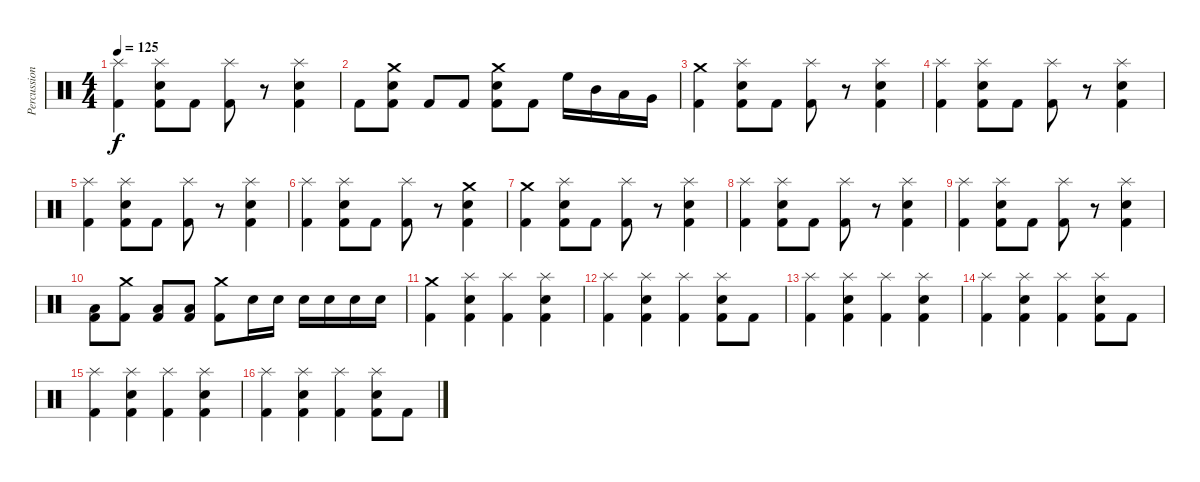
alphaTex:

\track ("Percussion" "Percussion") {instrument percussion}
\staff {score}
\articulation defaults
\ts (4 4)
\tempo 125
\clef neutral
\ks c
("Splash (hit)" "Kick (hit) 2").4{dy f} ("Splash (hit)" "Snare (hit) 2" "Kick (hit) 2").8 "Kick (hit) 2".8 ("Splash (hit)" "Kick (hit) 2").8 r.8 ("Splash (hit)" "Snare (hit) 2" "Kick (hit) 2").4 |
"Kick (hit) 2".8 ("Crash medium (hit)" "Snare (hit) 2" "Kick (hit) 2").8 "Kick (hit) 2".8 "Kick (hit) 2".8 ("Crash medium (hit)" "Snare (hit) 2" "Kick (hit) 2").8 "Kick (hit) 2".8 "High Floor Tom (hit)".16 "Mid Tom (hit)".16 "Low Tom (hit)".16 "Very Low Tom (hit)".16 |
("Crash medium (hit)" "Kick (hit) 2").4 ("Splash (hit)" "Snare (hit) 2" "Kick (hit) 2").8 "Kick (hit) 2".8 ("Splash (hit)" "Kick (hit) 2").8 r.8 ("Splash (hit)" "Snare (hit) 2" "Kick (hit) 2").4 |
("Splash (hit)" "Kick (hit) 2").4 ("Splash (hit)" "Snare (hit) 2" "Kick (hit) 2").8 "Kick (hit) 2".8 ("Splash (hit)" "Kick (hit) 2").8 r.8 ("Splash (hit)" "Snare (hit) 2" "Kick (hit) 2").4 |
("Splash (hit)" "Kick (hit) 2").4 ("Splash (hit)" "Snare (hit) 2" "Kick (hit) 2").8 "Kick (hit) 2".8 ("Splash (hit)" "Kick (hit) 2").8 r.8 ("Splash (hit)" "Snare (hit) 2" "Kick (hit) 2").4 |
("Splash (hit)" "Kick (hit) 2").4 ("Splash (hit)" "Snare (hit) 2" "Kick (hit) 2").8 "Kick (hit) 2".8 ("Splash (hit)" "Kick (hit) 2").8 r.8 ("Crash medium (hit)" "Snare (hit) 2" "Kick (hit) 2").4 |
("Crash medium (hit)" "Kick (hit) 2").4 ("Splash (hit)" "Snare (hit) 2" "Kick (hit) 2").8 "Kick (hit) 2".8 ("Splash (hit)" "Kick (hit) 2").8 r.8 ("Splash (hit)" "Snare (hit) 2" "Kick (hit) 2").4 |
("Splash (hit)" "Kick (hit) 2").4 ("Splash (hit)" "Snare (hit) 2" "Kick (hit) 2").8 "Kick (hit) 2".8 ("Splash (hit)" "Kick (hit) 2").8 r.8 ("Splash (hit)" "Snare (hit) 2" "Kick (hit) 2").4 |
("Splash (hit)" "Kick (hit) 2").4 ("Splash (hit)" "Snare (hit) 2" "Kick (hit) 2").8 "Kick (hit) 2".8 ("Splash (hit)" "Kick (hit) 2").8 r.8 ("Splash (hit)" "Snare (hit) 2" "Kick (hit) 2").4 |
("Low Floor Tom (hit)" "Kick (hit) 2").8 ("Crash medium (hit)" "Kick (hit) 2").8 ("Low Floor Tom (hit)" "Kick (hit) 2").8 ("Low Floor Tom (hit)" "Kick (hit) 2").8 ("Crash medium (hit)" "Kick (hit) 2").8 "Snare (hit) 2".16 "Snare (hit) 2".16 "Snare (hit) 2".16 "Snare (hit) 2".16 "Snare (hit) 2".16 "Snare (hit) 2".16 |
("Crash medium (hit)" "Kick (hit) 2").4 ("Splash (hit)" "Snare (hit) 2" "Kick (hit) 2").4 ("Splash (hit)" "Kick (hit) 2").4 ("Splash (hit)" "Snare (hit) 2" "Kick (hit) 2").4 |
("Splash (hit)" "Kick (hit) 2").4 ("Splash (hit)" "Snare (hit) 2" "Kick (hit) 2").4 ("Splash (hit)" "Kick (hit) 2").4 ("Splash (hit)" "Snare (hit) 2" "Kick (hit) 2").8 "Kick (hit) 2".8 |
("Splash (hit)" "Kick (hit) 2").4 ("Splash (hit)" "Snare (hit) 2" "Kick (hit) 2").4 ("Splash (hit)" "Kick (hit) 2").4 ("Splash (hit)" "Snare (hit) 2" "Kick (hit) 2").4 |
("Splash (hit)" "Kick (hit) 2").4 ("Splash (hit)" "Snare (hit) 2" "Kick (hit) 2").4 ("Splash (hit)" "Kick (hit) 2").4 ("Splash (hit)" "Snare (hit) 2" "Kick (hit) 2").8 "Kick (hit) 2".8 |
("Splash (hit)" "Kick (hit) 2").4 ("Splash (hit)" "Snare (hit) 2" "Kick (hit) 2").4 ("Splash (hit)" "Kick (hit) 2").4 ("Splash (hit)" "Snare (hit) 2" "Kick (hit) 2").4 |
("Splash (hit)" "Kick (hit) 2").4 ("Splash (hit)" "Snare (hit) 2" "Kick (hit) 2").4 ("Splash (hit)" "Kick (hit) 2").4 ("Splash (hit)" "Snare (hit) 2" "Kick (hit) 2").8 "Kick (hit) 2".8
